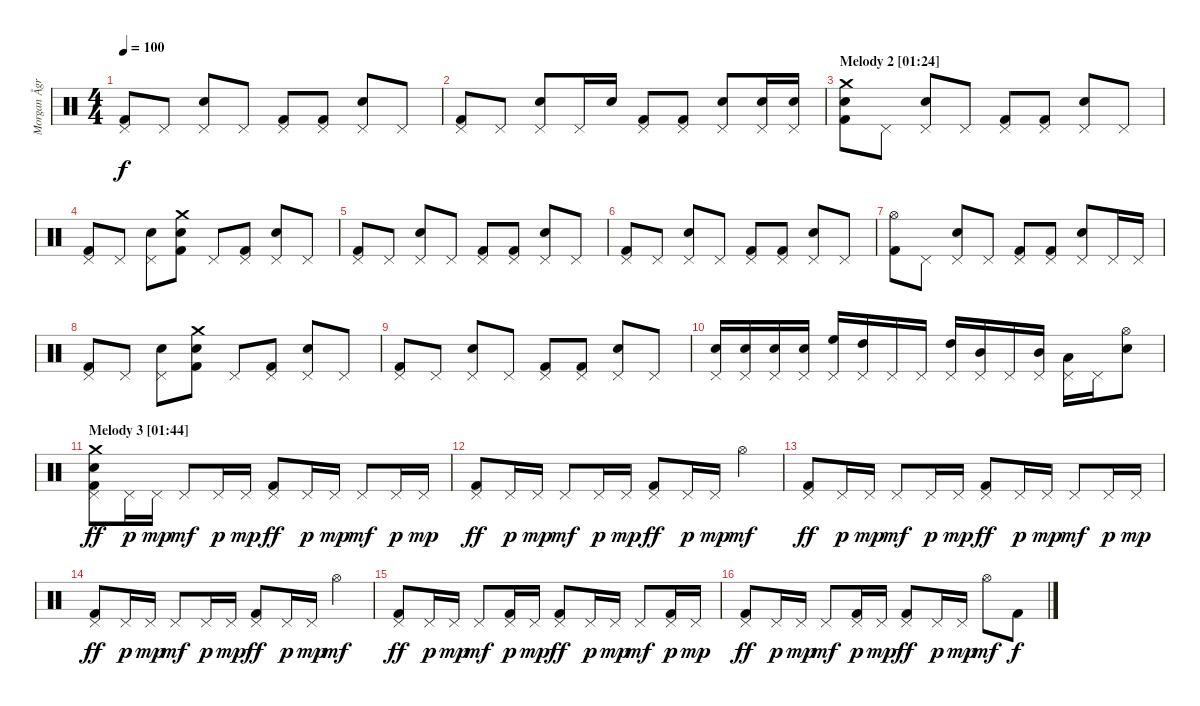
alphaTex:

\track ("Morgan Ågren" "Morgan Ågr") {instrument percussion}
\staff {score}
\articulation defaults
\ts (4 4)
\tempo 100
\clef neutral
\ks c
("Pedal Hi-Hat (hit)" "Kick (hit) 2").8{dy f} "Pedal Hi-Hat (hit)".8 ("Pedal Hi-Hat (hit)" "Electric Snare (hit)").8 "Pedal Hi-Hat (hit)".8 ("Pedal Hi-Hat (hit)" "Kick (hit) 2").8 ("Pedal Hi-Hat (hit)" "Kick (hit) 2").8 ("Pedal Hi-Hat (hit)" "Electric Snare (hit)").8 "Pedal Hi-Hat (hit)".8 |
("Pedal Hi-Hat (hit)" "Kick (hit) 2").8 "Pedal Hi-Hat (hit)".8 ("Pedal Hi-Hat (hit)" "Electric Snare (hit)").8 "Pedal Hi-Hat (hit)".16 "Electric Snare (hit)".16 ("Pedal Hi-Hat (hit)" "Kick (hit) 2").8 ("Pedal Hi-Hat (hit)" "Kick (hit) 2").8 ("Pedal Hi-Hat (hit)" "Electric Snare (hit)").8 ("Pedal Hi-Hat (hit)" "Electric Snare (hit)").16 ("Pedal Hi-Hat (hit)" "Electric Snare (hit)").16 |
\section ("" "Melody 2 [01:24]")
("Crash medium (hit)" "Electric Snare (hit)" "Kick (hit) 2").8 "Pedal Hi-Hat (hit)".8 ("Pedal Hi-Hat (hit)" "Electric Snare (hit)").8 "Pedal Hi-Hat (hit)".8 ("Pedal Hi-Hat (hit)" "Kick (hit) 2").8 ("Pedal Hi-Hat (hit)" "Kick (hit) 2").8 ("Pedal Hi-Hat (hit)" "Electric Snare (hit)").8 "Pedal Hi-Hat (hit)".8 |
("Pedal Hi-Hat (hit)" "Kick (hit) 2").8 "Pedal Hi-Hat (hit)".8 ("Pedal Hi-Hat (hit)" "Electric Snare (hit)").8 ("Crash medium (hit)" "Electric Snare (hit)" "Kick (hit) 2").8 "Pedal Hi-Hat (hit)".8 ("Pedal Hi-Hat (hit)" "Kick (hit) 2").8 ("Pedal Hi-Hat (hit)" "Electric Snare (hit)").8 "Pedal Hi-Hat (hit)".8 |
("Pedal Hi-Hat (hit)" "Kick (hit) 2").8 "Pedal Hi-Hat (hit)".8 ("Pedal Hi-Hat (hit)" "Electric Snare (hit)").8 "Pedal Hi-Hat (hit)".8 ("Pedal Hi-Hat (hit)" "Kick (hit) 2").8 ("Pedal Hi-Hat (hit)" "Kick (hit) 2").8 ("Pedal Hi-Hat (hit)" "Electric Snare (hit)").8 "Pedal Hi-Hat (hit)".8 |
("Pedal Hi-Hat (hit)" "Kick (hit) 2").8 "Pedal Hi-Hat (hit)".8 ("Pedal Hi-Hat (hit)" "Electric Snare (hit)").8 "Pedal Hi-Hat (hit)".8 ("Pedal Hi-Hat (hit)" "Kick (hit) 2").8 ("Pedal Hi-Hat (hit)" "Kick (hit) 2").8 ("Pedal Hi-Hat (hit)" "Electric Snare (hit)").8 "Pedal Hi-Hat (hit)".8 |
("Hi-Hat (open)" "Kick (hit) 2").8 "Pedal Hi-Hat (hit)".8 ("Pedal Hi-Hat (hit)" "Electric Snare (hit)").8 "Pedal Hi-Hat (hit)".8 ("Pedal Hi-Hat (hit)" "Kick (hit) 2").8 ("Pedal Hi-Hat (hit)" "Kick (hit) 2").8 ("Pedal Hi-Hat (hit)" "Electric Snare (hit)").8 "Pedal Hi-Hat (hit)".16 "Pedal Hi-Hat (hit)".16 |
("Pedal Hi-Hat (hit)" "Kick (hit) 2").8 "Pedal Hi-Hat (hit)".8 ("Pedal Hi-Hat (hit)" "Electric Snare (hit)").8 ("Crash medium (hit)" "Electric Snare (hit)" "Kick (hit) 2").8 "Pedal Hi-Hat (hit)".8 ("Pedal Hi-Hat (hit)" "Kick (hit) 2").8 ("Pedal Hi-Hat (hit)" "Electric Snare (hit)").8 "Pedal Hi-Hat (hit)".8 |
("Pedal Hi-Hat (hit)" "Kick (hit) 2").8 "Pedal Hi-Hat (hit)".8 ("Pedal Hi-Hat (hit)" "Electric Snare (hit)").8 "Pedal Hi-Hat (hit)".8 ("Pedal Hi-Hat (hit)" "Kick (hit) 2").8 ("Pedal Hi-Hat (hit)" "Kick (hit) 2").8 ("Pedal Hi-Hat (hit)" "Electric Snare (hit)").8 "Pedal Hi-Hat (hit)".8 |
("Pedal Hi-Hat (hit)" "Electric Snare (hit)").16 ("Pedal Hi-Hat (hit)" "Electric Snare (hit)").16 ("Pedal Hi-Hat (hit)" "Electric Snare (hit)").16 ("Pedal Hi-Hat (hit)" "Electric Snare (hit)").16 ("Pedal Hi-Hat (hit)" "High Floor Tom (hit)").16 ("Pedal Hi-Hat (hit)" "High Tom (hit)").16 "Pedal Hi-Hat (hit)".16 "Pedal Hi-Hat (hit)".16 ("Pedal Hi-Hat (hit)" "High Tom (hit)").16 ("Pedal Hi-Hat (hit)" "Mid Tom (hit)").16 "Pedal Hi-Hat (hit)".16 ("Pedal Hi-Hat (hit)" "Mid Tom (hit)").16 ("Pedal Hi-Hat (hit)" "Low Tom (hit)").16 "Pedal Hi-Hat (hit)".16 ("Hi-Hat (open)" "Electric Snare (hit)").8 |
\section ("" "Melody 3 [01:44]")
("Crash medium (hit)" "Pedal Hi-Hat (hit)" "Electric Snare (hit)" "Kick (hit) 2").8{dy ff} "Pedal Hi-Hat (hit)".16{dy p} "Pedal Hi-Hat (hit)".16{dy mp} "Pedal Hi-Hat (hit)".8{dy mf} "Pedal Hi-Hat (hit)".16{dy p} "Pedal Hi-Hat (hit)".16{dy mp} ("Pedal Hi-Hat (hit)" "Kick (hit) 2").8{dy ff} "Pedal Hi-Hat (hit)".16{dy p} "Pedal Hi-Hat (hit)".16{dy mp} "Pedal Hi-Hat (hit)".8{dy mf} "Pedal Hi-Hat (hit)".16{dy p} "Pedal Hi-Hat (hit)".16{dy mp} |
("Pedal Hi-Hat (hit)" "Kick (hit) 2").8{dy ff} "Pedal Hi-Hat (hit)".16{dy p} "Pedal Hi-Hat (hit)".16{dy mp} "Pedal Hi-Hat (hit)".8{dy mf} "Pedal Hi-Hat (hit)".16{dy p} "Pedal Hi-Hat (hit)".16{dy mp} ("Pedal Hi-Hat (hit)" "Kick (hit) 2").8{dy ff} "Pedal Hi-Hat (hit)".16{dy p} "Pedal Hi-Hat (hit)".16{dy mp} "Hi-Hat (open)".4{dy mf} |
("Pedal Hi-Hat (hit)" "Kick (hit) 2").8{dy ff} "Pedal Hi-Hat (hit)".16{dy p} "Pedal Hi-Hat (hit)".16{dy mp} "Pedal Hi-Hat (hit)".8{dy mf} "Pedal Hi-Hat (hit)".16{dy p} "Pedal Hi-Hat (hit)".16{dy mp} ("Pedal Hi-Hat (hit)" "Kick (hit) 2").8{dy ff} "Pedal Hi-Hat (hit)".16{dy p} "Pedal Hi-Hat (hit)".16{dy mp} "Pedal Hi-Hat (hit)".8{dy mf} "Pedal Hi-Hat (hit)".16{dy p} "Pedal Hi-Hat (hit)".16{dy mp} |
("Pedal Hi-Hat (hit)" "Kick (hit) 2").8{dy ff} "Pedal Hi-Hat (hit)".16{dy p} "Pedal Hi-Hat (hit)".16{dy mp} "Pedal Hi-Hat (hit)".8{dy mf} "Pedal Hi-Hat (hit)".16{dy p} "Pedal Hi-Hat (hit)".16{dy mp} ("Pedal Hi-Hat (hit)" "Kick (hit) 2").8{dy ff} "Pedal Hi-Hat (hit)".16{dy p} "Pedal Hi-Hat (hit)".16{dy mp} "Hi-Hat (open)".4{dy mf} |
("Pedal Hi-Hat (hit)" "Kick (hit) 2").8{dy ff} "Pedal Hi-Hat (hit)".16{dy p} "Pedal Hi-Hat (hit)".16{dy mp} "Pedal Hi-Hat (hit)".8{dy mf} ("Pedal Hi-Hat (hit)" "Kick (hit) 2").16{dy p} "Pedal Hi-Hat (hit)".16{dy mp} ("Pedal Hi-Hat (hit)" "Kick (hit) 2").8{dy ff} "Pedal Hi-Hat (hit)".16{dy p} "Pedal Hi-Hat (hit)".16{dy mp} "Pedal Hi-Hat (hit)".8{dy mf} ("Pedal Hi-Hat (hit)" "Kick (hit) 2").16{dy p} "Pedal Hi-Hat (hit)".16{dy mp} |
("Pedal Hi-Hat (hit)" "Kick (hit) 2").8{dy ff} "Pedal Hi-Hat (hit)".16{dy p} "Pedal Hi-Hat (hit)".16{dy mp} "Pedal Hi-Hat (hit)".8{dy mf} ("Pedal Hi-Hat (hit)" "Kick (hit) 2").16{dy p} "Pedal Hi-Hat (hit)".16{dy mp} ("Pedal Hi-Hat (hit)" "Kick (hit) 2").8{dy ff} "Pedal Hi-Hat (hit)".16{dy p} "Pedal Hi-Hat (hit)".16{dy mp} "Hi-Hat (open)".8{dy mf} "Kick (hit) 2".8{dy f}
